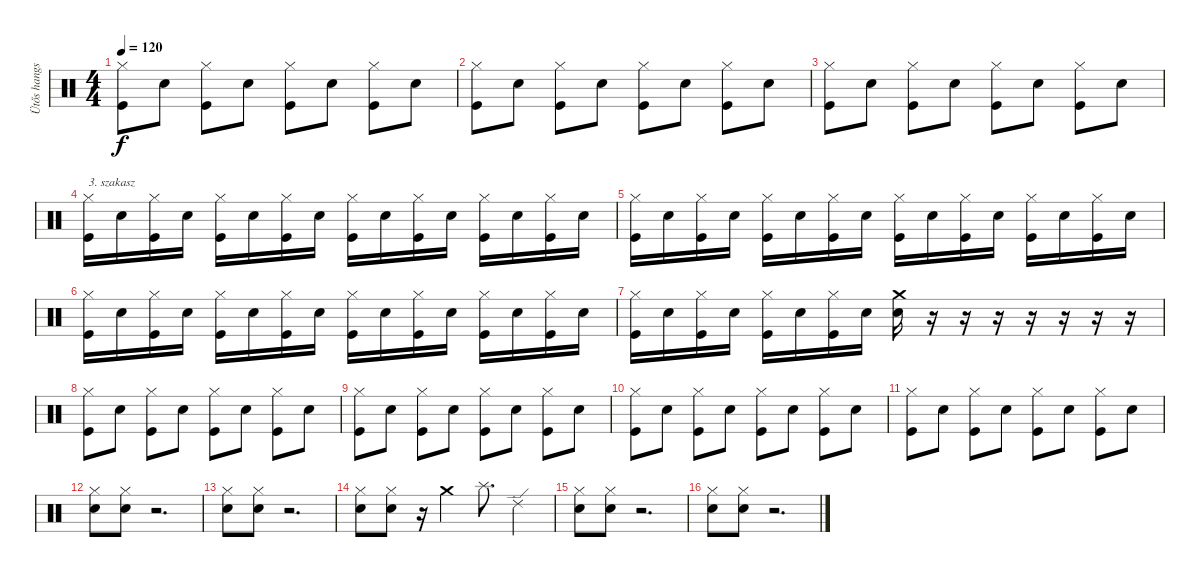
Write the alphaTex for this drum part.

\track ("Ütős hangszer" "Ütős hangs") {instrument percussion}
\staff {score}
\articulation defaults
\ts (4 4)
\tempo 120
\clef neutral
\ks c
("Hi-Hat (closed)" "Kick (hit)").8{dy f} "Snare (hit) 2".8 ("Hi-Hat (closed)" "Kick (hit)").8 "Snare (hit) 2".8 ("Hi-Hat (closed)" "Kick (hit)").8 "Snare (hit) 2".8 ("Hi-Hat (closed)" "Kick (hit)").8 "Snare (hit) 2".8 |
("Hi-Hat (closed)" "Kick (hit)").8 "Snare (hit) 2".8 ("Hi-Hat (closed)" "Kick (hit)").8 "Snare (hit) 2".8 ("Hi-Hat (closed)" "Kick (hit)").8 "Snare (hit) 2".8 ("Hi-Hat (closed)" "Kick (hit)").8 "Snare (hit) 2".8 |
("Hi-Hat (closed)" "Kick (hit)").8 "Snare (hit) 2".8 ("Hi-Hat (closed)" "Kick (hit)").8 "Snare (hit) 2".8 ("Hi-Hat (closed)" "Kick (hit)").8 "Snare (hit) 2".8 ("Hi-Hat (closed)" "Kick (hit)").8 "Snare (hit) 2".8 |
("Hi-Hat (closed)" "Kick (hit)").16{txt "3. szakasz"} "Snare (hit) 2".16 ("Hi-Hat (closed)" "Kick (hit)").16 "Snare (hit) 2".16 ("Hi-Hat (closed)" "Kick (hit)").16 "Snare (hit) 2".16 ("Hi-Hat (closed)" "Kick (hit)").16 "Snare (hit) 2".16 ("Hi-Hat (closed)" "Kick (hit)").16 "Snare (hit) 2".16 ("Hi-Hat (closed)" "Kick (hit)").16 "Snare (hit) 2".16 ("Hi-Hat (closed)" "Kick (hit)").16 "Snare (hit) 2".16 ("Hi-Hat (closed)" "Kick (hit)").16 "Snare (hit) 2".16 |
("Hi-Hat (closed)" "Kick (hit)").16 "Snare (hit) 2".16 ("Hi-Hat (closed)" "Kick (hit)").16 "Snare (hit) 2".16 ("Hi-Hat (closed)" "Kick (hit)").16 "Snare (hit) 2".16 ("Hi-Hat (closed)" "Kick (hit)").16 "Snare (hit) 2".16 ("Hi-Hat (closed)" "Kick (hit)").16 "Snare (hit) 2".16 ("Hi-Hat (closed)" "Kick (hit)").16 "Snare (hit) 2".16 ("Hi-Hat (closed)" "Kick (hit)").16 "Snare (hit) 2".16 ("Hi-Hat (closed)" "Kick (hit)").16 "Snare (hit) 2".16 |
("Hi-Hat (closed)" "Kick (hit)").16 "Snare (hit) 2".16 ("Hi-Hat (closed)" "Kick (hit)").16 "Snare (hit) 2".16 ("Hi-Hat (closed)" "Kick (hit)").16 "Snare (hit) 2".16 ("Hi-Hat (closed)" "Kick (hit)").16 "Snare (hit) 2".16 ("Hi-Hat (closed)" "Kick (hit)").16 "Snare (hit) 2".16 ("Hi-Hat (closed)" "Kick (hit)").16 "Snare (hit) 2".16 ("Hi-Hat (closed)" "Kick (hit)").16 "Snare (hit) 2".16 ("Hi-Hat (closed)" "Kick (hit)").16 "Snare (hit) 2".16 |
("Hi-Hat (closed)" "Kick (hit)").16 "Snare (hit) 2".16 ("Hi-Hat (closed)" "Kick (hit)").16 "Snare (hit) 2".16 ("Hi-Hat (closed)" "Kick (hit)").16 "Snare (hit) 2".16 ("Hi-Hat (closed)" "Kick (hit)").16 "Snare (hit) 2".16 ("Crash medium (hit)" "Snare (hit) 2").16 r.16 r.16 r.16 r.16 r.16 r.16 r.16 |
("Hi-Hat (closed)" "Kick (hit)").8 "Snare (hit) 2".8 ("Hi-Hat (closed)" "Kick (hit)").8 "Snare (hit) 2".8 ("Hi-Hat (closed)" "Kick (hit)").8 "Snare (hit) 2".8 ("Hi-Hat (closed)" "Kick (hit)").8 "Snare (hit) 2".8 |
("Hi-Hat (closed)" "Kick (hit)").8 "Snare (hit) 2".8 ("Hi-Hat (closed)" "Kick (hit)").8 "Snare (hit) 2".8 ("Hi-Hat (closed)" "Kick (hit)").8 "Snare (hit) 2".8 ("Hi-Hat (closed)" "Kick (hit)").8 "Snare (hit) 2".8 |
("Hi-Hat (closed)" "Kick (hit)").8 "Snare (hit) 2".8 ("Hi-Hat (closed)" "Kick (hit)").8 "Snare (hit) 2".8 ("Hi-Hat (closed)" "Kick (hit)").8 "Snare (hit) 2".8 ("Hi-Hat (closed)" "Kick (hit)").8 "Snare (hit) 2".8 |
("Hi-Hat (closed)" "Kick (hit)").8 "Snare (hit) 2".8 ("Hi-Hat (closed)" "Kick (hit)").8 "Snare (hit) 2".8 ("Hi-Hat (closed)" "Kick (hit)").8 "Snare (hit) 2".8 ("Hi-Hat (closed)" "Kick (hit)").8 "Snare (hit) 2".8 |
("Hi-Hat (closed)" "Snare (hit) 2").8 ("Hi-Hat (closed)" "Snare (hit) 2").8 r.2{d} |
("Hi-Hat (closed)" "Snare (hit) 2").8 ("Hi-Hat (closed)" "Snare (hit) 2").8 r.2{d} |
("Hi-Hat (closed)" "Snare (hit) 2").8 ("Hi-Hat (closed)" "Snare (hit) 2").8 r.16 "Crash medium (hit)".4 "Splash (hit)".8{d} "Ride (edge) 2".4 |
("Hi-Hat (closed)" "Snare (hit) 2").8 ("Hi-Hat (closed)" "Snare (hit) 2").8 r.2{d} |
("Hi-Hat (closed)" "Snare (hit) 2").8 ("Hi-Hat (closed)" "Snare (hit) 2").8 r.2{d}
